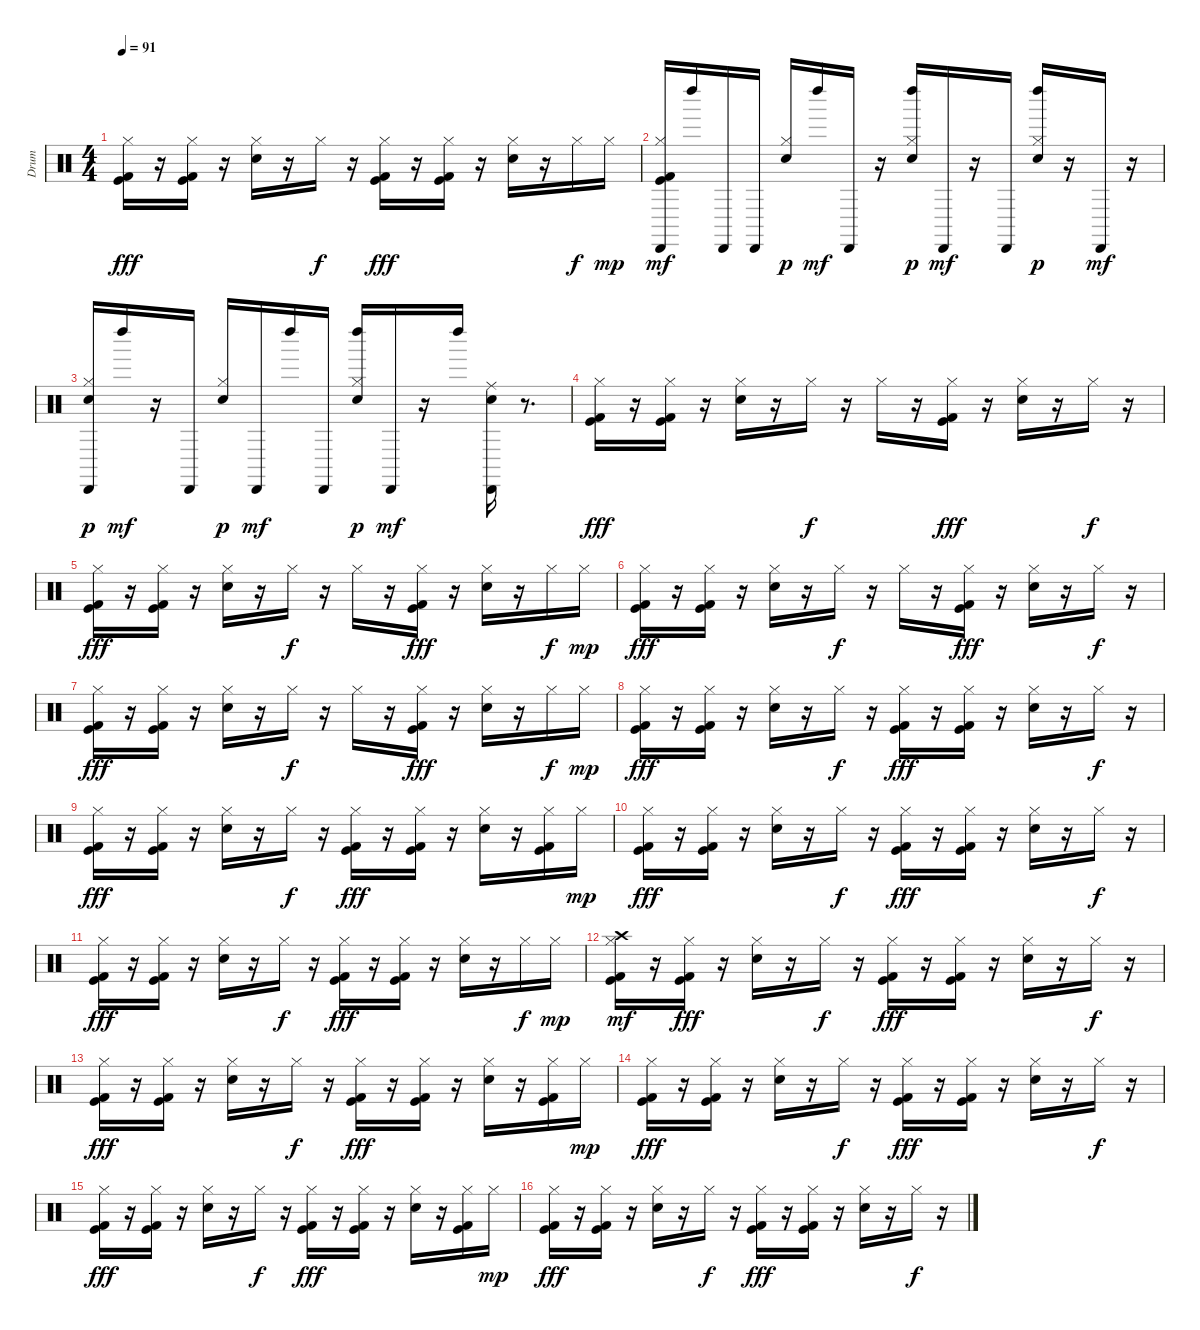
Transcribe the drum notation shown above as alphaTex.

\track ("Drum" "Drum") {instrument percussion}
\staff {score}
\articulation defaults
\ts (4 4)
\tempo 91
\clef neutral
\ks c
("Kick (hit)" "Kick (hit) 2" "Hi-Hat (closed)").16{dy fff} r.16 ("Kick (hit)" "Kick (hit) 2" "Hi-Hat (closed)").16 r.16 ("Hi-Hat (closed)" "Electric Snare (hit)").16 r.16 "Hi-Hat (closed)".16{dy f} r.16 ("Kick (hit)" "Kick (hit) 2" "Hi-Hat (closed)").16{dy fff} r.16 ("Kick (hit)" "Kick (hit) 2" "Hi-Hat (closed)").16 r.16 ("Hi-Hat (closed)" "Electric Snare (hit)").16 r.16 "Hi-Hat (closed)".16{dy f} "Hi-Hat (closed)".16{dy mp} |
("Kick (hit)" "Kick (hit) 2" "Hi-Hat (closed)" "Cabasa (hit)").16{dy mf} "Left Maraca (hit)".16 "Cabasa (hit)".16 "Cabasa (hit)".16 ("Hi-Hat (closed)" "Electric Snare (hit)").16{dy p} "Left Maraca (hit)".16{dy mf} "Cabasa (hit)".16 r.16 ("Left Maraca (hit)" "Hi-Hat (closed)" "Electric Snare (hit)").16{dy p} "Cabasa (hit)".16{dy mf} r.16 "Cabasa (hit)".16 ("Left Maraca (hit)" "Hi-Hat (closed)" "Electric Snare (hit)").16{dy p} r.16 "Cabasa (hit)".16{dy mf} r.16 |
("Hi-Hat (closed)" "Cabasa (hit)" "Electric Snare (hit)").16{dy p} "Left Maraca (hit)".16{dy mf} r.16 "Cabasa (hit)".16 ("Hi-Hat (closed)" "Electric Snare (hit)").16{dy p} "Cabasa (hit)".16{dy mf} "Left Maraca (hit)".16 "Cabasa (hit)".16 ("Hi-Hat (closed)" "Left Maraca (hit)" "Electric Snare (hit)").16{dy p} "Cabasa (hit)".16{dy mf} r.16 "Left Maraca (hit)".16 ("Electric Snare (hit)" "Cabasa (hit)" "Ride (middle)").16 r.8{d} |
("Kick (hit)" "Kick (hit) 2" "Hi-Hat (closed)").16{dy fff} r.16 ("Kick (hit)" "Kick (hit) 2" "Hi-Hat (closed)").16 r.16 ("Hi-Hat (closed)" "Electric Snare (hit)").16 r.16 "Hi-Hat (closed)".16{dy f} r.16 "Hi-Hat (closed)".16 r.16 ("Kick (hit)" "Kick (hit) 2" "Hi-Hat (closed)").16{dy fff} r.16 ("Hi-Hat (closed)" "Electric Snare (hit)").16 r.16 "Hi-Hat (closed)".16{dy f} r.16 |
("Kick (hit)" "Kick (hit) 2" "Hi-Hat (closed)").16{dy fff} r.16 ("Kick (hit)" "Kick (hit) 2" "Hi-Hat (closed)").16 r.16 ("Hi-Hat (closed)" "Electric Snare (hit)").16 r.16 "Hi-Hat (closed)".16{dy f} r.16 "Hi-Hat (closed)".16 r.16 ("Kick (hit)" "Kick (hit) 2" "Hi-Hat (closed)").16{dy fff} r.16 ("Hi-Hat (closed)" "Electric Snare (hit)").16 r.16 "Hi-Hat (closed)".16{dy f} "Hi-Hat (closed)".16{dy mp} |
("Kick (hit)" "Kick (hit) 2" "Hi-Hat (closed)").16{dy fff} r.16 ("Kick (hit)" "Kick (hit) 2" "Hi-Hat (closed)").16 r.16 ("Hi-Hat (closed)" "Electric Snare (hit)").16 r.16 "Hi-Hat (closed)".16{dy f} r.16 "Hi-Hat (closed)".16 r.16 ("Kick (hit)" "Kick (hit) 2" "Hi-Hat (closed)").16{dy fff} r.16 ("Hi-Hat (closed)" "Electric Snare (hit)").16 r.16 "Hi-Hat (closed)".16{dy f} r.16 |
("Kick (hit)" "Kick (hit) 2" "Hi-Hat (closed)").16{dy fff} r.16 ("Kick (hit)" "Kick (hit) 2" "Hi-Hat (closed)").16 r.16 ("Hi-Hat (closed)" "Electric Snare (hit)").16 r.16 "Hi-Hat (closed)".16{dy f} r.16 "Hi-Hat (closed)".16 r.16 ("Kick (hit)" "Kick (hit) 2" "Hi-Hat (closed)").16{dy fff} r.16 ("Hi-Hat (closed)" "Electric Snare (hit)").16 r.16 "Hi-Hat (closed)".16{dy f} "Hi-Hat (closed)".16{dy mp} |
("Kick (hit)" "Kick (hit) 2" "Hi-Hat (closed)").16{dy fff} r.16 ("Kick (hit)" "Kick (hit) 2" "Hi-Hat (closed)").16 r.16 ("Hi-Hat (closed)" "Electric Snare (hit)").16 r.16 "Hi-Hat (closed)".16{dy f} r.16 ("Hi-Hat (closed)" "Kick (hit) 2" "Kick (hit)").16{dy fff} r.16 ("Kick (hit)" "Kick (hit) 2" "Hi-Hat (closed)").16 r.16 ("Hi-Hat (closed)" "Electric Snare (hit)").16 r.16 "Hi-Hat (closed)".16{dy f} r.16 |
("Kick (hit)" "Kick (hit) 2" "Hi-Hat (closed)").16{dy fff} r.16 ("Kick (hit)" "Kick (hit) 2" "Hi-Hat (closed)").16 r.16 ("Hi-Hat (closed)" "Electric Snare (hit)").16 r.16 "Hi-Hat (closed)".16{dy f} r.16 ("Hi-Hat (closed)" "Kick (hit)" "Kick (hit) 2").16{dy fff} r.16 ("Kick (hit)" "Kick (hit) 2" "Hi-Hat (closed)").16 r.16 ("Hi-Hat (closed)" "Electric Snare (hit)").16 r.16 ("Hi-Hat (closed)" "Kick (hit)" "Kick (hit) 2").16 "Hi-Hat (closed)".16{dy mp} |
("Kick (hit)" "Kick (hit) 2" "Hi-Hat (closed)").16{dy fff} r.16 ("Kick (hit)" "Kick (hit) 2" "Hi-Hat (closed)").16 r.16 ("Hi-Hat (closed)" "Electric Snare (hit)").16 r.16 "Hi-Hat (closed)".16{dy f} r.16 ("Hi-Hat (closed)" "Kick (hit) 2" "Kick (hit)").16{dy fff} r.16 ("Kick (hit)" "Kick (hit) 2" "Hi-Hat (closed)").16 r.16 ("Hi-Hat (closed)" "Electric Snare (hit)").16 r.16 "Hi-Hat (closed)".16{dy f} r.16 |
("Kick (hit)" "Kick (hit) 2" "Hi-Hat (closed)").16{dy fff} r.16 ("Kick (hit)" "Kick (hit) 2" "Hi-Hat (closed)").16 r.16 ("Hi-Hat (closed)" "Electric Snare (hit)").16 r.16 "Hi-Hat (closed)".16{dy f} r.16 ("Hi-Hat (closed)" "Kick (hit)" "Kick (hit) 2").16{dy fff} r.16 ("Kick (hit)" "Kick (hit) 2" "Hi-Hat (closed)").16 r.16 ("Hi-Hat (closed)" "Electric Snare (hit)").16 r.16 "Hi-Hat (closed)".16{dy f} "Hi-Hat (closed)".16{dy mp} |
("Kick (hit)" "Kick (hit) 2" "Hi-Hat (closed)" "Crash high (hit)").16{dy mf} r.16 ("Kick (hit)" "Kick (hit) 2" "Hi-Hat (closed)").16{dy fff} r.16 ("Hi-Hat (closed)" "Electric Snare (hit)").16 r.16 "Hi-Hat (closed)".16{dy f} r.16 ("Hi-Hat (closed)" "Kick (hit) 2" "Kick (hit)").16{dy fff} r.16 ("Kick (hit)" "Kick (hit) 2" "Hi-Hat (closed)").16 r.16 ("Hi-Hat (closed)" "Electric Snare (hit)").16 r.16 "Hi-Hat (closed)".16{dy f} r.16 |
("Kick (hit)" "Kick (hit) 2" "Hi-Hat (closed)").16{dy fff} r.16 ("Kick (hit)" "Kick (hit) 2" "Hi-Hat (closed)").16 r.16 ("Hi-Hat (closed)" "Electric Snare (hit)").16 r.16 "Hi-Hat (closed)".16{dy f} r.16 ("Hi-Hat (closed)" "Kick (hit)" "Kick (hit) 2").16{dy fff} r.16 ("Kick (hit)" "Kick (hit) 2" "Hi-Hat (closed)").16 r.16 ("Hi-Hat (closed)" "Electric Snare (hit)").16 r.16 ("Hi-Hat (closed)" "Kick (hit)" "Kick (hit) 2").16 "Hi-Hat (closed)".16{dy mp} |
("Kick (hit)" "Kick (hit) 2" "Hi-Hat (closed)").16{dy fff} r.16 ("Kick (hit)" "Kick (hit) 2" "Hi-Hat (closed)").16 r.16 ("Hi-Hat (closed)" "Electric Snare (hit)").16 r.16 "Hi-Hat (closed)".16{dy f} r.16 ("Hi-Hat (closed)" "Kick (hit) 2" "Kick (hit)").16{dy fff} r.16 ("Kick (hit)" "Kick (hit) 2" "Hi-Hat (closed)").16 r.16 ("Hi-Hat (closed)" "Electric Snare (hit)").16 r.16 "Hi-Hat (closed)".16{dy f} r.16 |
("Kick (hit)" "Kick (hit) 2" "Hi-Hat (closed)").16{dy fff} r.16 ("Kick (hit)" "Kick (hit) 2" "Hi-Hat (closed)").16 r.16 ("Hi-Hat (closed)" "Electric Snare (hit)").16 r.16 "Hi-Hat (closed)".16{dy f} r.16 ("Hi-Hat (closed)" "Kick (hit)" "Kick (hit) 2").16{dy fff} r.16 ("Kick (hit)" "Kick (hit) 2" "Hi-Hat (closed)").16 r.16 ("Hi-Hat (closed)" "Electric Snare (hit)").16 r.16 ("Hi-Hat (closed)" "Kick (hit)" "Kick (hit) 2").16 "Hi-Hat (closed)".16{dy mp} |
("Kick (hit)" "Kick (hit) 2" "Hi-Hat (closed)").16{dy fff} r.16 ("Kick (hit)" "Kick (hit) 2" "Hi-Hat (closed)").16 r.16 ("Hi-Hat (closed)" "Electric Snare (hit)").16 r.16 "Hi-Hat (closed)".16{dy f} r.16 ("Hi-Hat (closed)" "Kick (hit) 2" "Kick (hit)").16{dy fff} r.16 ("Kick (hit)" "Kick (hit) 2" "Hi-Hat (closed)").16 r.16 ("Hi-Hat (closed)" "Electric Snare (hit)").16 r.16 "Hi-Hat (closed)".16{dy f} r.16
